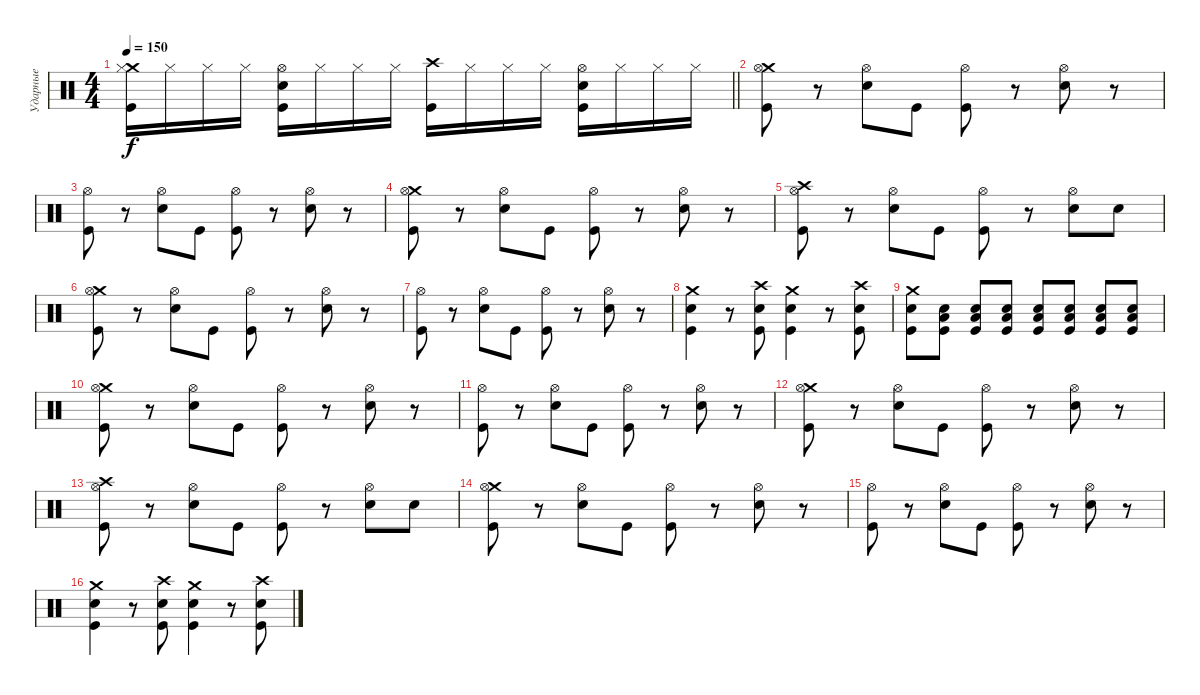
\track ("Ударные" "Ударные") {instrument percussion}
\staff {score}
\articulation defaults
\ts (4 4)
\tempo 150
\clef neutral
\barLineRight lightlight
\ks c
("Crash medium (hit)" "Hi-Hat (closed)" "Kick (hit)").16{dy f} "Hi-Hat (closed)".16 "Hi-Hat (closed)".16 "Hi-Hat (closed)".16 ("Hi-Hat (open)" "Electric Snare (hit)" "Kick (hit)").16 "Hi-Hat (closed)".16 "Hi-Hat (closed)".16 "Hi-Hat (closed)".16 ("Crash high (hit)" "Kick (hit)").16 "Hi-Hat (closed)".16 "Hi-Hat (closed)".16 "Hi-Hat (closed)".16 ("Hi-Hat (open)" "Electric Snare (hit)" "Kick (hit)").16 "Hi-Hat (closed)".16 "Hi-Hat (closed)".16 "Hi-Hat (closed)".16 |
("Crash medium (hit)" "Hi-Hat (open)" "Kick (hit)").8 r.8 ("Hi-Hat (open)" "Electric Snare (hit)").8 "Kick (hit)".8 ("Hi-Hat (open)" "Kick (hit)").8 r.8 ("Hi-Hat (open)" "Electric Snare (hit)").8 r.8 |
("Hi-Hat (open)" "Kick (hit)").8 r.8 ("Hi-Hat (open)" "Electric Snare (hit)").8 "Kick (hit)".8 ("Hi-Hat (open)" "Kick (hit)").8 r.8 ("Hi-Hat (open)" "Electric Snare (hit)").8 r.8 |
("Crash medium (hit)" "Hi-Hat (open)" "Kick (hit)").8 r.8 ("Hi-Hat (open)" "Electric Snare (hit)").8 "Kick (hit)".8 ("Hi-Hat (open)" "Kick (hit)").8 r.8 ("Hi-Hat (open)" "Electric Snare (hit)").8 r.8 |
("Crash high (hit)" "Hi-Hat (open)" "Kick (hit)").8 r.8 ("Hi-Hat (open)" "Electric Snare (hit)").8 "Kick (hit)".8 ("Hi-Hat (open)" "Kick (hit)").8 r.8 ("Hi-Hat (open)" "Electric Snare (hit)").8 "Electric Snare (hit)".8 |
("Crash medium (hit)" "Hi-Hat (open)" "Kick (hit)").8 r.8 ("Hi-Hat (open)" "Electric Snare (hit)").8 "Kick (hit)".8 ("Hi-Hat (open)" "Kick (hit)").8 r.8 ("Hi-Hat (open)" "Electric Snare (hit)").8 r.8 |
("Hi-Hat (open)" "Kick (hit)").8 r.8 ("Hi-Hat (open)" "Electric Snare (hit)").8 "Kick (hit)".8 ("Hi-Hat (open)" "Kick (hit)").8 r.8 ("Hi-Hat (open)" "Electric Snare (hit)").8 r.8 |
("Crash medium (hit)" "Electric Snare (hit)" "Kick (hit)").4 r.8 ("Crash high (hit)" "Electric Snare (hit)" "Kick (hit)").8 ("Crash medium (hit)" "Electric Snare (hit)" "Kick (hit)").4 r.8 ("Crash high (hit)" "Electric Snare (hit)" "Kick (hit)").8 |
("Crash medium (hit)" "Electric Snare (hit)" "Kick (hit)").8 ("Low Floor Tom (hit)" "Electric Snare (hit)" "Kick (hit)").8 ("Low Floor Tom (hit)" "Electric Snare (hit)" "Kick (hit)").8 ("Low Floor Tom (hit)" "Electric Snare (hit)" "Kick (hit)").8 ("Low Floor Tom (hit)" "Electric Snare (hit)" "Kick (hit)").8 ("Low Floor Tom (hit)" "Electric Snare (hit)" "Kick (hit)").8 ("Low Floor Tom (hit)" "Electric Snare (hit)" "Kick (hit)").8 ("Low Floor Tom (hit)" "Electric Snare (hit)" "Kick (hit)").8 |
("Crash medium (hit)" "Hi-Hat (open)" "Kick (hit)").8 r.8 ("Hi-Hat (open)" "Electric Snare (hit)").8 "Kick (hit)".8 ("Hi-Hat (open)" "Kick (hit)").8 r.8 ("Hi-Hat (open)" "Electric Snare (hit)").8 r.8 |
("Hi-Hat (open)" "Kick (hit)").8 r.8 ("Hi-Hat (open)" "Electric Snare (hit)").8 "Kick (hit)".8 ("Hi-Hat (open)" "Kick (hit)").8 r.8 ("Hi-Hat (open)" "Electric Snare (hit)").8 r.8 |
("Crash medium (hit)" "Hi-Hat (open)" "Kick (hit)").8 r.8 ("Hi-Hat (open)" "Electric Snare (hit)").8 "Kick (hit)".8 ("Hi-Hat (open)" "Kick (hit)").8 r.8 ("Hi-Hat (open)" "Electric Snare (hit)").8 r.8 |
("Crash high (hit)" "Hi-Hat (open)" "Kick (hit)").8 r.8 ("Hi-Hat (open)" "Electric Snare (hit)").8 "Kick (hit)".8 ("Hi-Hat (open)" "Kick (hit)").8 r.8 ("Hi-Hat (open)" "Electric Snare (hit)").8 "Electric Snare (hit)".8 |
("Crash medium (hit)" "Hi-Hat (open)" "Kick (hit)").8 r.8 ("Hi-Hat (open)" "Electric Snare (hit)").8 "Kick (hit)".8 ("Hi-Hat (open)" "Kick (hit)").8 r.8 ("Hi-Hat (open)" "Electric Snare (hit)").8 r.8 |
("Hi-Hat (open)" "Kick (hit)").8 r.8 ("Hi-Hat (open)" "Electric Snare (hit)").8 "Kick (hit)".8 ("Hi-Hat (open)" "Kick (hit)").8 r.8 ("Hi-Hat (open)" "Electric Snare (hit)").8 r.8 |
("Crash medium (hit)" "Electric Snare (hit)" "Kick (hit)").4 r.8 ("Crash high (hit)" "Electric Snare (hit)" "Kick (hit)").8 ("Crash medium (hit)" "Electric Snare (hit)" "Kick (hit)").4 r.8 ("Crash high (hit)" "Electric Snare (hit)" "Kick (hit)").8
